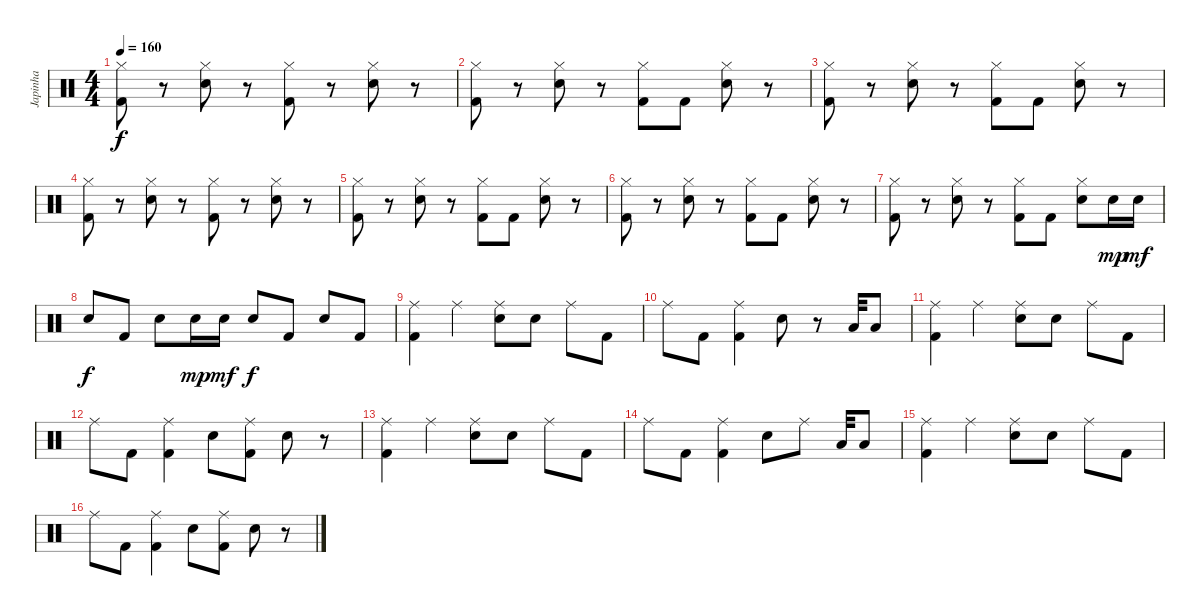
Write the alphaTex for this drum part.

\track ("Japinha" "Japinha") {instrument percussion}
\staff {score}
\articulation defaults
\ts (4 4)
\tempo 160
\clef neutral
\ks c
("Hi-Hat (closed)" "Kick (hit) 2").8{dy f} r.8 ("Hi-Hat (closed)" "Snare (hit) 2").8 r.8 ("Hi-Hat (closed)" "Kick (hit) 2").8 r.8 ("Hi-Hat (closed)" "Snare (hit) 2").8 r.8 |
("Hi-Hat (closed)" "Kick (hit) 2").8 r.8 ("Hi-Hat (closed)" "Snare (hit) 2").8 r.8 ("Hi-Hat (closed)" "Kick (hit) 2").8 "Kick (hit) 2".8 ("Hi-Hat (closed)" "Snare (hit) 2").8 r.8 |
("Hi-Hat (closed)" "Kick (hit) 2").8 r.8 ("Hi-Hat (closed)" "Snare (hit) 2").8 r.8 ("Hi-Hat (closed)" "Kick (hit) 2").8 "Kick (hit) 2".8 ("Hi-Hat (closed)" "Snare (hit) 2").8 r.8 |
("Hi-Hat (closed)" "Kick (hit) 2").8 r.8 ("Hi-Hat (closed)" "Snare (hit) 2").8 r.8 ("Hi-Hat (closed)" "Kick (hit) 2").8 r.8 ("Hi-Hat (closed)" "Snare (hit) 2").8 r.8 |
("Hi-Hat (closed)" "Kick (hit) 2").8 r.8 ("Hi-Hat (closed)" "Snare (hit) 2").8 r.8 ("Hi-Hat (closed)" "Kick (hit) 2").8 "Kick (hit) 2".8 ("Hi-Hat (closed)" "Snare (hit) 2").8 r.8 |
("Hi-Hat (closed)" "Kick (hit) 2").8 r.8 ("Hi-Hat (closed)" "Snare (hit) 2").8 r.8 ("Hi-Hat (closed)" "Kick (hit) 2").8 "Kick (hit) 2".8 ("Hi-Hat (closed)" "Snare (hit) 2").8 r.8 |
("Hi-Hat (closed)" "Kick (hit) 2").8 r.8 ("Hi-Hat (closed)" "Snare (hit) 2").8 r.8 ("Hi-Hat (closed)" "Kick (hit) 2").8 "Kick (hit) 2".8 ("Hi-Hat (closed)" "Snare (hit) 2").8 "Snare (hit) 2".16{dy mp} "Snare (hit) 2".16{dy mf} |
"Snare (hit) 2".8{dy f} "Kick (hit) 2".8 "Snare (hit) 2".8 "Snare (hit) 2".16{dy mp} "Snare (hit) 2".16{dy mf} "Snare (hit) 2".8{dy f} "Kick (hit) 2".8 "Snare (hit) 2".8 "Kick (hit) 2".8 |
("Ride (middle)" "Kick (hit) 2").4 "Ride (middle)".4 ("Ride (middle)" "Snare (hit) 2").8 "Snare (hit) 2".8 "Ride (middle)".8 "Kick (hit) 2".8 |
"Ride (middle)".8 "Kick (hit) 2".8 ("Ride (middle)" "Kick (hit) 2").4 "Snare (hit) 2".8 r.8 "Low Tom (hit)".32 "Low Tom (hit)".8 |
("Ride (middle)" "Kick (hit) 2").4 "Ride (middle)".4 ("Ride (middle)" "Snare (hit) 2").8 "Snare (hit) 2".8 "Ride (middle)".8 "Kick (hit) 2".8 |
"Ride (middle)".8 "Kick (hit) 2".8 ("Ride (middle)" "Kick (hit) 2").4 "Snare (hit) 2".8 ("Ride (middle)" "Kick (hit) 2").8 "Snare (hit) 2".8 r.8 |
("Ride (middle)" "Kick (hit) 2").4 "Ride (middle)".4 ("Ride (middle)" "Snare (hit) 2").8 "Snare (hit) 2".8 "Ride (middle)".8 "Kick (hit) 2".8 |
"Ride (middle)".8 "Kick (hit) 2".8 ("Ride (middle)" "Kick (hit) 2").4 "Snare (hit) 2".8 "Ride (middle)".8 "Low Tom (hit)".32 "Low Tom (hit)".8 |
("Ride (middle)" "Kick (hit) 2").4 "Ride (middle)".4 ("Ride (middle)" "Snare (hit) 2").8 "Snare (hit) 2".8 "Ride (middle)".8 "Kick (hit) 2".8 |
"Ride (middle)".8 "Kick (hit) 2".8 ("Ride (middle)" "Kick (hit) 2").4 "Snare (hit) 2".8 ("Ride (middle)" "Kick (hit) 2").8 "Snare (hit) 2".8 r.8
